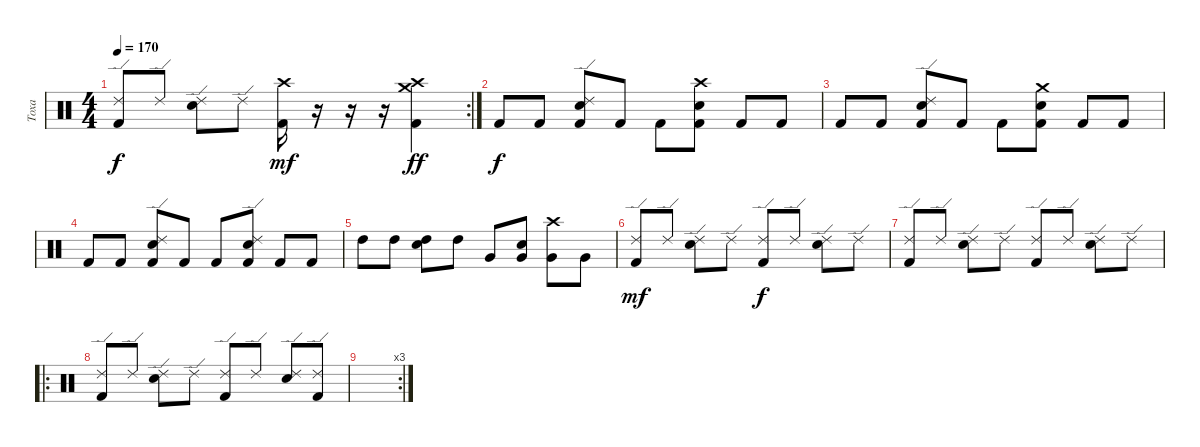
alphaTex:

\track ("Тоха" "Тоха") {instrument percussion}
\staff {score}
\articulation defaults
\rc 2
\ts (4 4)
\tempo 170
\clef neutral
\ks c
("Ride (edge) 2" "Kick (hit) 2").8{dy f} "Ride (edge) 2".8 ("Ride (edge) 2" "Snare (hit) 2").8 "Ride (edge) 2".8 ("Crash high (hit)" "Kick (hit) 2").16{dy mf} r.16 r.16 r.16 ("Crash high (hit)" "Crash medium (hit)" "Kick (hit) 2").4{dy ff} |
"Kick (hit) 2".8{dy f} "Kick (hit) 2".8 ("Ride (edge) 2" "Snare (hit) 2" "Kick (hit) 2").8 "Kick (hit) 2".8 "Kick (hit) 2".8 ("Crash high (hit)" "Snare (hit) 2" "Kick (hit) 2").8 "Kick (hit) 2".8 "Kick (hit) 2".8 |
"Kick (hit) 2".8 "Kick (hit) 2".8 ("Ride (edge) 2" "Snare (hit) 2" "Kick (hit) 2").8 "Kick (hit) 2".8 "Kick (hit) 2".8 ("Crash medium (hit)" "Snare (hit) 2" "Kick (hit) 2").8 "Kick (hit) 2".8 "Kick (hit) 2".8 |
"Kick (hit) 2".8 "Kick (hit) 2".8 ("Ride (edge) 2" "Snare (hit) 2" "Kick (hit) 2").8 "Kick (hit) 2".8 "Kick (hit) 2".8 ("Ride (edge) 2" "Snare (hit) 2" "Kick (hit) 2").8 "Kick (hit) 2".8 "Kick (hit) 2".8 |
"High Tom (hit)".8 "High Tom (hit)".8 ("High Tom (hit)" "Snare (hit) 2").8 "High Tom (hit)".8 "Very Low Tom (hit)".8 ("Snare (hit) 2" "Very Low Tom (hit)").8 ("Crash high (hit)" "Very Low Tom (hit)").8 "Very Low Tom (hit)".8 |
("Ride (edge) 2" "Kick (hit) 2").8{dy mf} "Ride (edge) 2".8 ("Ride (edge) 2" "Snare (hit) 2").8 "Ride (edge) 2".8 ("Ride (edge) 2" "Kick (hit) 2").8{dy f} "Ride (edge) 2".8 ("Ride (edge) 2" "Snare (hit) 2").8 "Ride (edge) 2".8 |
("Ride (edge) 2" "Kick (hit) 2").8 "Ride (edge) 2".8 ("Ride (edge) 2" "Snare (hit) 2").8 "Ride (edge) 2".8 ("Ride (edge) 2" "Kick (hit) 2").8 "Ride (edge) 2".8 ("Ride (edge) 2" "Snare (hit) 2").8 "Ride (edge) 2".8 |
\ro
("Ride (edge) 2" "Kick (hit) 2").8 "Ride (edge) 2".8 ("Ride (edge) 2" "Snare (hit) 2").8 "Ride (edge) 2".8 ("Ride (edge) 2" "Kick (hit) 2").8 "Ride (edge) 2".8 ("Ride (edge) 2" "Snare (hit) 2").8 ("Ride (edge) 2" "Kick (hit) 2").8 |
\rc 3
